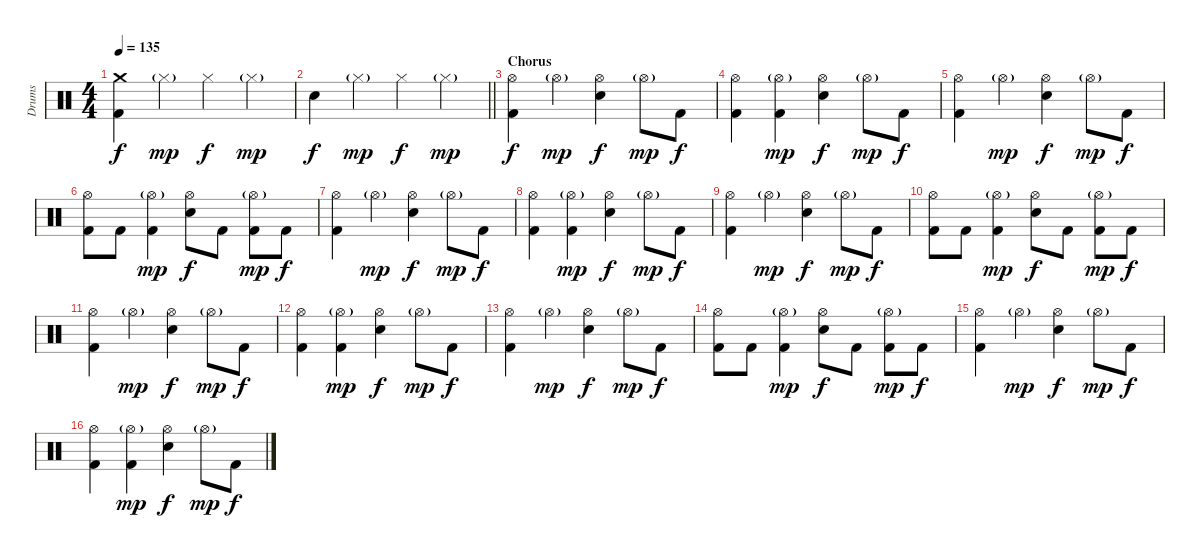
\track ("Drums" "Drums") {instrument percussion}
\staff {score}
\articulation defaults
\ts (4 4)
\tempo 135
\clef neutral
\ks c
("Crash medium (hit)" "Kick (hit) 2").4{dy f} "Hi-Hat (closed)"{g}.4{dy mp} "Hi-Hat (closed)".4{dy f} "Hi-Hat (closed)"{g}.4{dy mp} |
\barLineRight lightlight "Electric Snare (hit)".4{dy f} "Hi-Hat (closed)"{g}.4{dy mp} "Hi-Hat (closed)".4{dy f} "Hi-Hat (closed)"{g}.4{dy mp}
|
\section ("" "Chorus")
("Hi-Hat (open)" "Kick (hit) 2").4{dy f} "Hi-Hat (open)"{g}.4{dy mp} ("Hi-Hat (open)" "Electric Snare (hit)").4{dy f} "Hi-Hat (open)"{g}.8{dy mp} "Kick (hit) 2".8{dy f} |
("Hi-Hat (open)" "Kick (hit) 2").4 ("Hi-Hat (open)"{g} "Kick (hit) 2").4{dy mp} ("Hi-Hat (open)" "Electric Snare (hit)").4{dy f} "Hi-Hat (open)"{g}.8{dy mp} "Kick (hit) 2".8{dy f} |
("Hi-Hat (open)" "Kick (hit) 2").4 "Hi-Hat (open)"{g}.4{dy mp} ("Hi-Hat (open)" "Electric Snare (hit)").4{dy f} "Hi-Hat (open)"{g}.8{dy mp} "Kick (hit) 2".8{dy f} |
("Hi-Hat (open)" "Kick (hit) 2").8 "Kick (hit) 2".8 ("Hi-Hat (open)"{g} "Kick (hit) 2").4{dy mp} ("Hi-Hat (open)" "Electric Snare (hit)").8{dy f} "Kick (hit) 2".8 ("Hi-Hat (open)"{g} "Kick (hit) 2").8{dy mp} "Kick (hit) 2".8{dy f} |
("Hi-Hat (open)" "Kick (hit) 2").4 "Hi-Hat (open)"{g}.4{dy mp} ("Hi-Hat (open)" "Electric Snare (hit)").4{dy f} "Hi-Hat (open)"{g}.8{dy mp} "Kick (hit) 2".8{dy f} |
("Hi-Hat (open)" "Kick (hit) 2").4 ("Hi-Hat (open)"{g} "Kick (hit) 2").4{dy mp} ("Hi-Hat (open)" "Electric Snare (hit)").4{dy f} "Hi-Hat (open)"{g}.8{dy mp} "Kick (hit) 2".8{dy f} |
("Hi-Hat (open)" "Kick (hit) 2").4 "Hi-Hat (open)"{g}.4{dy mp} ("Hi-Hat (open)" "Electric Snare (hit)").4{dy f} "Hi-Hat (open)"{g}.8{dy mp} "Kick (hit) 2".8{dy f} |
("Hi-Hat (open)" "Kick (hit) 2").8 "Kick (hit) 2".8 ("Hi-Hat (open)"{g} "Kick (hit) 2").4{dy mp} ("Hi-Hat (open)" "Electric Snare (hit)").8{dy f} "Kick (hit) 2".8 ("Hi-Hat (open)"{g} "Kick (hit) 2").8{dy mp} "Kick (hit) 2".8{dy f} |
("Hi-Hat (open)" "Kick (hit) 2").4 "Hi-Hat (open)"{g}.4{dy mp} ("Hi-Hat (open)" "Electric Snare (hit)").4{dy f} "Hi-Hat (open)"{g}.8{dy mp} "Kick (hit) 2".8{dy f} |
("Hi-Hat (open)" "Kick (hit) 2").4 ("Hi-Hat (open)"{g} "Kick (hit) 2").4{dy mp} ("Hi-Hat (open)" "Electric Snare (hit)").4{dy f} "Hi-Hat (open)"{g}.8{dy mp} "Kick (hit) 2".8{dy f} |
("Hi-Hat (open)" "Kick (hit) 2").4 "Hi-Hat (open)"{g}.4{dy mp} ("Hi-Hat (open)" "Electric Snare (hit)").4{dy f} "Hi-Hat (open)"{g}.8{dy mp} "Kick (hit) 2".8{dy f} |
("Hi-Hat (open)" "Kick (hit) 2").8 "Kick (hit) 2".8 ("Hi-Hat (open)"{g} "Kick (hit) 2").4{dy mp} ("Hi-Hat (open)" "Electric Snare (hit)").8{dy f} "Kick (hit) 2".8 ("Hi-Hat (open)"{g} "Kick (hit) 2").8{dy mp} "Kick (hit) 2".8{dy f} |
("Hi-Hat (open)" "Kick (hit) 2").4 "Hi-Hat (open)"{g}.4{dy mp} ("Hi-Hat (open)" "Electric Snare (hit)").4{dy f} "Hi-Hat (open)"{g}.8{dy mp} "Kick (hit) 2".8{dy f} |
("Hi-Hat (open)" "Kick (hit) 2").4 ("Hi-Hat (open)"{g} "Kick (hit) 2").4{dy mp} ("Hi-Hat (open)" "Electric Snare (hit)").4{dy f} "Hi-Hat (open)"{g}.8{dy mp} "Kick (hit) 2".8{dy f}
